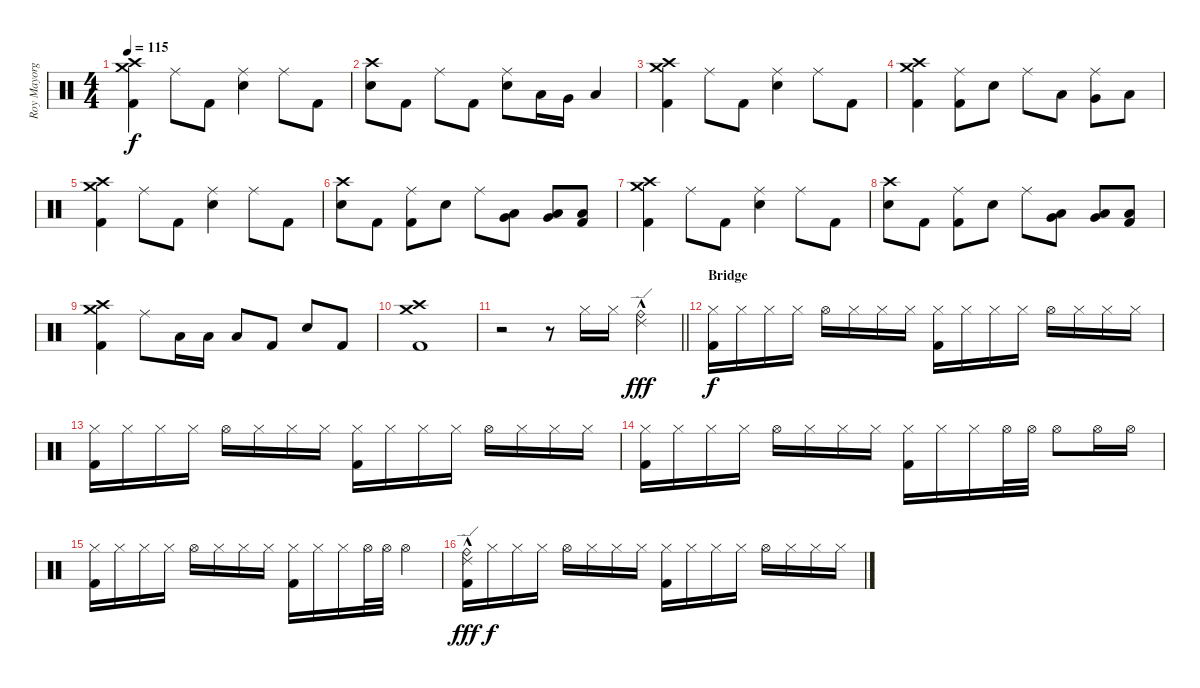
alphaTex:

\track ("Roy Mayorga" "Roy Mayorg") {instrument percussion}
\staff {score}
\articulation defaults
\ts (4 4)
\tempo 115
\clef neutral
\ks c
("Crash high (hit)" "Crash medium (hit)" "Kick (hit) 2").4{dy f} "Ride (middle)".8 "Kick (hit) 2".8 ("Ride (middle)" "Electric Snare (hit)").4 "Ride (middle)".8 "Kick (hit) 2".8 |
("Crash high (hit)" "Electric Snare (hit)").8 "Kick (hit) 2".8 "Ride (middle)".8 "Kick (hit) 2".8 ("Ride (middle)" "Electric Snare (hit)").8 "Low Tom (hit)".16 "Very Low Tom (hit)".16 "Low Floor Tom (hit)".4 |
("Crash high (hit)" "Crash medium (hit)" "Kick (hit) 2").4 "Ride (middle)".8 "Kick (hit) 2".8 ("Ride (middle)" "Electric Snare (hit)").4 "Ride (middle)".8 "Kick (hit) 2".8 |
("Crash high (hit)" "Crash medium (hit)" "Kick (hit) 2").4 ("Ride (middle)" "Kick (hit) 2").8 "Electric Snare (hit)".8 "Ride (middle)".8 "Low Tom (hit)".8 ("Ride (middle)" "Very Low Tom (hit)").8 "Low Floor Tom (hit)".8 |
("Crash high (hit)" "Crash medium (hit)" "Kick (hit) 2").4 "Ride (middle)".8 "Kick (hit) 2".8 ("Ride (middle)" "Electric Snare (hit)").4 "Ride (middle)".8 "Kick (hit) 2".8 |
("Crash high (hit)" "Electric Snare (hit)").8 "Kick (hit) 2".8 ("Ride (middle)" "Kick (hit) 2").8 "Electric Snare (hit)".8 "Ride (middle)".8 ("Low Tom (hit)" "Very Low Tom (hit)").8 ("Very Low Tom (hit)" "Low Floor Tom (hit)").8 ("Low Floor Tom (hit)" "Kick (hit) 2").8 |
("Crash high (hit)" "Crash medium (hit)" "Kick (hit) 2").4 "Ride (middle)".8 "Kick (hit) 2".8 ("Ride (middle)" "Electric Snare (hit)").4 "Ride (middle)".8 "Kick (hit) 2".8 |
("Crash high (hit)" "Electric Snare (hit)").8 "Kick (hit) 2".8 ("Ride (middle)" "Kick (hit) 2").8 "Electric Snare (hit)".8 "Ride (middle)".8 ("Low Tom (hit)" "Very Low Tom (hit)").8 ("Very Low Tom (hit)" "Low Floor Tom (hit)").8 ("Low Floor Tom (hit)" "Kick (hit) 2").8 |
("Crash high (hit)" "Crash medium (hit)" "Kick (hit) 2").4 "Ride (middle)".8 "Low Tom (hit)".16 "Low Tom (hit)".16 "Low Tom (hit)".8 "Kick (hit) 2".8 "Electric Snare (hit)".8 "Kick (hit) 2".8 |
("Crash high (hit)" "Crash medium (hit)" "Kick (hit) 2").1 |
\barLineRight lightlight
r.2 r.8 "Hi-Hat (closed)".16 "Hi-Hat (closed)".16 ("Ride (edge) 2"{hac} "Ride (bell)"{hac}).4{dy fff} |
\section ("" "Bridge")
("Hi-Hat (closed)" "Kick (hit) 2").16{dy f} "Hi-Hat (closed)".16 "Hi-Hat (closed)".16 "Hi-Hat (closed)".16 "Hi-Hat (open)".16 "Hi-Hat (closed)".16 "Hi-Hat (closed)".16 "Hi-Hat (closed)".16 ("Hi-Hat (closed)" "Kick (hit) 2").16 "Hi-Hat (closed)".16 "Hi-Hat (closed)".16 "Hi-Hat (closed)".16 "Hi-Hat (open)".16 "Hi-Hat (closed)".16 "Hi-Hat (closed)".16 "Hi-Hat (closed)".16 |
("Hi-Hat (closed)" "Kick (hit) 2").16 "Hi-Hat (closed)".16 "Hi-Hat (closed)".16 "Hi-Hat (closed)".16 "Hi-Hat (open)".16 "Hi-Hat (closed)".16 "Hi-Hat (closed)".16 "Hi-Hat (closed)".16 ("Hi-Hat (closed)" "Kick (hit) 2").16 "Hi-Hat (closed)".16 "Hi-Hat (closed)".16 "Hi-Hat (closed)".16 "Hi-Hat (open)".16 "Hi-Hat (closed)".16 "Hi-Hat (closed)".16 "Hi-Hat (closed)".16 |
("Hi-Hat (closed)" "Kick (hit) 2").16 "Hi-Hat (closed)".16 "Hi-Hat (closed)".16 "Hi-Hat (closed)".16 "Hi-Hat (open)".16 "Hi-Hat (closed)".16 "Hi-Hat (closed)".16 "Hi-Hat (closed)".16 ("Hi-Hat (closed)" "Kick (hit) 2").16 "Hi-Hat (closed)".16 "Hi-Hat (closed)".16 "Hi-Hat (open)".32 "Hi-Hat (open)".32 "Hi-Hat (open)".8 "Hi-Hat (open)".16 "Hi-Hat (open)".16 |
("Hi-Hat (closed)" "Kick (hit) 2").16 "Hi-Hat (closed)".16 "Hi-Hat (closed)".16 "Hi-Hat (closed)".16 "Hi-Hat (open)".16 "Hi-Hat (closed)".16 "Hi-Hat (closed)".16 "Hi-Hat (closed)".16 ("Hi-Hat (closed)" "Kick (hit) 2").16 "Hi-Hat (closed)".16 "Hi-Hat (closed)".16 "Hi-Hat (open)".32 "Hi-Hat (open)".32 "Hi-Hat (open)".4 |
("Ride (edge) 2"{hac} "Ride (bell)"{hac} "Kick (hit) 2").16{dy fff} "Hi-Hat (closed)".16{dy f} "Hi-Hat (closed)".16 "Hi-Hat (closed)".16 "Hi-Hat (open)".16 "Hi-Hat (closed)".16 "Hi-Hat (closed)".16 "Hi-Hat (closed)".16 ("Hi-Hat (closed)" "Kick (hit) 2").16 "Hi-Hat (closed)".16 "Hi-Hat (closed)".16 "Hi-Hat (closed)".16 "Hi-Hat (open)".16 "Hi-Hat (closed)".16 "Hi-Hat (closed)".16 "Hi-Hat (closed)".16
